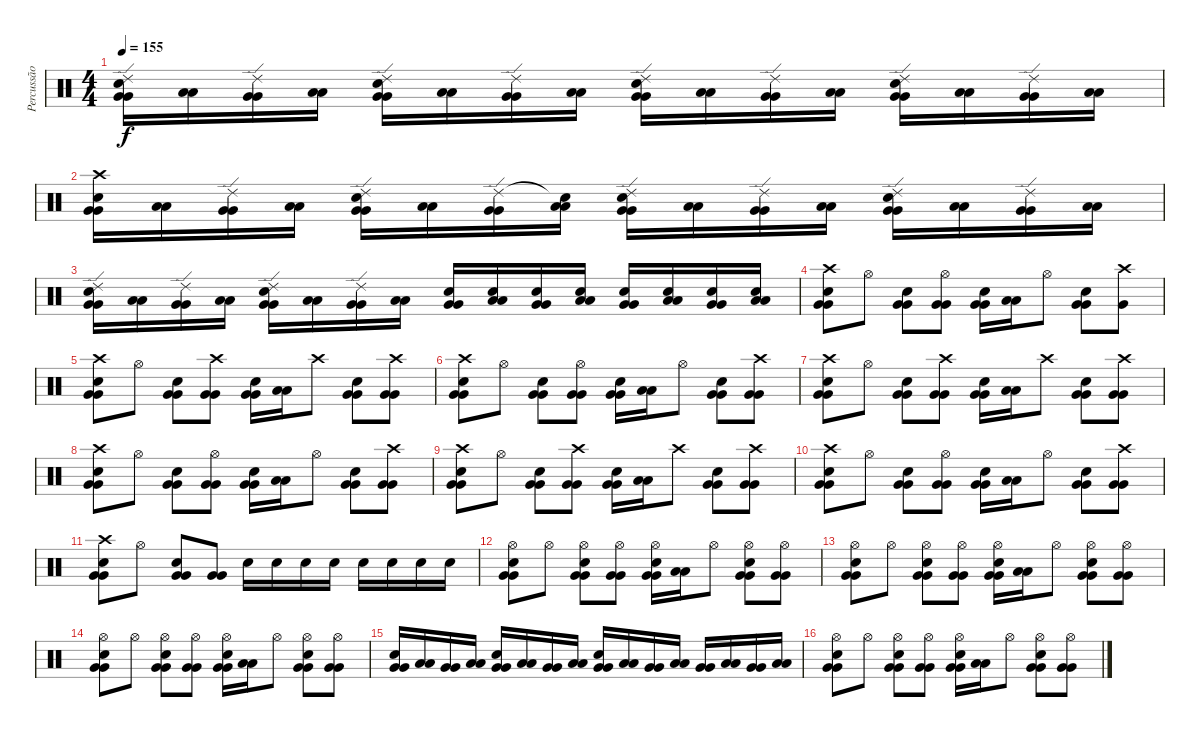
\track ("Percussão" "Percussão") {instrument percussion}
\staff {score}
\articulation defaults
\ts (4 4)
\tempo 155
\clef neutral
\ks c
("Ride (edge) 2" "Electric Snare (hit)" "Very Low Tom (hit)" "Very Low Tom (hit)").16{dy f} ("Low Floor Tom (hit)" "Low Floor Tom (hit)").16 ("Ride (edge) 2" "Very Low Tom (hit)" "Very Low Tom (hit)").16 ("Low Floor Tom (hit)" "Low Floor Tom (hit)").16 ("Ride (edge) 2" "Electric Snare (hit)" "Very Low Tom (hit)" "Very Low Tom (hit)").16 ("Low Floor Tom (hit)" "Low Floor Tom (hit)").16 ("Ride (edge) 2" "Very Low Tom (hit)" "Very Low Tom (hit)").16 ("Low Floor Tom (hit)" "Low Floor Tom (hit)").16 ("Ride (edge) 2" "Electric Snare (hit)" "Very Low Tom (hit)" "Very Low Tom (hit)").16 ("Low Floor Tom (hit)" "Low Floor Tom (hit)").16 ("Ride (edge) 2" "Very Low Tom (hit)" "Very Low Tom (hit)").16 ("Low Floor Tom (hit)" "Low Floor Tom (hit)").16 ("Ride (edge) 2" "Electric Snare (hit)" "Very Low Tom (hit)" "Very Low Tom (hit)").16 ("Low Floor Tom (hit)" "Low Floor Tom (hit)").16 ("Ride (edge) 2" "Very Low Tom (hit)" "Very Low Tom (hit)").16 ("Low Floor Tom (hit)" "Low Floor Tom (hit)").16 |
("Crash high (hit)" "Electric Snare (hit)" "Very Low Tom (hit)" "Very Low Tom (hit)").16 ("Low Floor Tom (hit)" "Low Floor Tom (hit)").16 ("Ride (edge) 2" "Very Low Tom (hit)" "Very Low Tom (hit)").16 ("Low Floor Tom (hit)" "Low Floor Tom (hit)").16 ("Ride (edge) 2" "Electric Snare (hit)" "Very Low Tom (hit)" "Very Low Tom (hit)").16 ("Low Floor Tom (hit)" "Low Floor Tom (hit)").16 ("Ride (edge) 2" "Very Low Tom (hit)" "Very Low Tom (hit)").16 ("Snare (hit)"{t} "Low Floor Tom (hit)" "Low Floor Tom (hit)").16 ("Ride (edge) 2" "Electric Snare (hit)" "Very Low Tom (hit)" "Very Low Tom (hit)").16 ("Low Floor Tom (hit)" "Low Floor Tom (hit)").16 ("Ride (edge) 2" "Very Low Tom (hit)" "Very Low Tom (hit)").16 ("Low Floor Tom (hit)" "Low Floor Tom (hit)").16 ("Ride (edge) 2" "Electric Snare (hit)" "Very Low Tom (hit)" "Very Low Tom (hit)").16 ("Low Floor Tom (hit)" "Low Floor Tom (hit)").16 ("Ride (edge) 2" "Very Low Tom (hit)" "Very Low Tom (hit)").16 ("Low Floor Tom (hit)" "Low Floor Tom (hit)").16 |
("Ride (edge) 2" "Electric Snare (hit)" "Very Low Tom (hit)" "Very Low Tom (hit)").16 ("Low Floor Tom (hit)" "Low Floor Tom (hit)").16 ("Ride (edge) 2" "Very Low Tom (hit)" "Very Low Tom (hit)").16 ("Low Floor Tom (hit)" "Low Floor Tom (hit)").16 ("Ride (edge) 2" "Electric Snare (hit)" "Very Low Tom (hit)" "Very Low Tom (hit)").16 ("Low Floor Tom (hit)" "Low Floor Tom (hit)").16 ("Ride (edge) 2" "Very Low Tom (hit)" "Very Low Tom (hit)").16 ("Low Floor Tom (hit)" "Low Floor Tom (hit)").16 ("Electric Snare (hit)" "Very Low Tom (hit)" "Very Low Tom (hit)").16 ("Electric Snare (hit)" "Low Floor Tom (hit)" "Low Floor Tom (hit)").16 ("Electric Snare (hit)" "Very Low Tom (hit)" "Very Low Tom (hit)").16 ("Electric Snare (hit)" "Low Floor Tom (hit)" "Low Floor Tom (hit)").16 ("Electric Snare (hit)" "Very Low Tom (hit)" "Very Low Tom (hit)").16 ("Electric Snare (hit)" "Low Floor Tom (hit)" "Low Floor Tom (hit)").16 ("Electric Snare (hit)" "Very Low Tom (hit)" "Very Low Tom (hit)").16 ("Electric Snare (hit)" "Low Floor Tom (hit)" "Low Floor Tom (hit)").16 |
("Crash high (hit)" "Electric Snare (hit)" "Very Low Tom (hit)" "Very Low Tom (hit)").8 "Hi-Hat (open)".8 ("Electric Snare (hit)" "Very Low Tom (hit)" "Very Low Tom (hit)").8 ("Hi-Hat (open)" "Very Low Tom (hit)" "Very Low Tom (hit)").8 ("Electric Snare (hit)" "Very Low Tom (hit)" "Very Low Tom (hit)").16 ("Low Floor Tom (hit)" "Low Floor Tom (hit)").16 "Hi-Hat (open)".8 ("Electric Snare (hit)" "Very Low Tom (hit)" "Very Low Tom (hit)").8 ("Crash high (hit)" "Very Low Tom (hit)").8 |
("Crash high (hit)" "Electric Snare (hit)" "Very Low Tom (hit)" "Very Low Tom (hit)").8 "Hi-Hat (open)".8 ("Electric Snare (hit)" "Very Low Tom (hit)" "Very Low Tom (hit)").8 ("Crash high (hit)" "Very Low Tom (hit)" "Very Low Tom (hit)").8 ("Electric Snare (hit)" "Very Low Tom (hit)" "Very Low Tom (hit)").16 ("Low Floor Tom (hit)" "Low Floor Tom (hit)").16 "Crash high (hit)".8 ("Electric Snare (hit)" "Very Low Tom (hit)" "Very Low Tom (hit)").8 ("Crash high (hit)" "Very Low Tom (hit)" "Very Low Tom (hit)").8 |
("Crash high (hit)" "Electric Snare (hit)" "Very Low Tom (hit)" "Very Low Tom (hit)").8 "Hi-Hat (open)".8 ("Electric Snare (hit)" "Very Low Tom (hit)" "Very Low Tom (hit)").8 ("Hi-Hat (open)" "Very Low Tom (hit)" "Very Low Tom (hit)").8 ("Electric Snare (hit)" "Very Low Tom (hit)" "Very Low Tom (hit)").16 ("Low Floor Tom (hit)" "Low Floor Tom (hit)").16 "Hi-Hat (open)".8 ("Electric Snare (hit)" "Very Low Tom (hit)" "Very Low Tom (hit)").8 ("Crash high (hit)" "Very Low Tom (hit)" "Very Low Tom (hit)").8 |
("Crash high (hit)" "Electric Snare (hit)" "Very Low Tom (hit)" "Very Low Tom (hit)").8 "Hi-Hat (open)".8 ("Electric Snare (hit)" "Very Low Tom (hit)" "Very Low Tom (hit)").8 ("Crash high (hit)" "Very Low Tom (hit)" "Very Low Tom (hit)").8 ("Electric Snare (hit)" "Very Low Tom (hit)" "Very Low Tom (hit)").16 ("Low Floor Tom (hit)" "Low Floor Tom (hit)").16 "Crash high (hit)".8 ("Electric Snare (hit)" "Very Low Tom (hit)" "Very Low Tom (hit)").8 ("Crash high (hit)" "Very Low Tom (hit)" "Very Low Tom (hit)").8 |
("Crash high (hit)" "Electric Snare (hit)" "Very Low Tom (hit)" "Very Low Tom (hit)").8 "Hi-Hat (open)".8 ("Electric Snare (hit)" "Very Low Tom (hit)" "Very Low Tom (hit)").8 ("Hi-Hat (open)" "Very Low Tom (hit)" "Very Low Tom (hit)").8 ("Electric Snare (hit)" "Very Low Tom (hit)" "Very Low Tom (hit)").16 ("Low Floor Tom (hit)" "Low Floor Tom (hit)").16 "Hi-Hat (open)".8 ("Electric Snare (hit)" "Very Low Tom (hit)" "Very Low Tom (hit)").8 ("Crash high (hit)" "Very Low Tom (hit)" "Very Low Tom (hit)").8 |
("Crash high (hit)" "Electric Snare (hit)" "Very Low Tom (hit)" "Very Low Tom (hit)").8 "Hi-Hat (open)".8 ("Electric Snare (hit)" "Very Low Tom (hit)" "Very Low Tom (hit)").8 ("Crash high (hit)" "Very Low Tom (hit)" "Very Low Tom (hit)").8 ("Electric Snare (hit)" "Very Low Tom (hit)" "Very Low Tom (hit)").16 ("Low Floor Tom (hit)" "Low Floor Tom (hit)").16 "Crash high (hit)".8 ("Electric Snare (hit)" "Very Low Tom (hit)" "Very Low Tom (hit)").8 ("Crash high (hit)" "Very Low Tom (hit)" "Very Low Tom (hit)").8 |
("Crash high (hit)" "Electric Snare (hit)" "Very Low Tom (hit)" "Very Low Tom (hit)").8 "Hi-Hat (open)".8 ("Electric Snare (hit)" "Very Low Tom (hit)" "Very Low Tom (hit)").8 ("Hi-Hat (open)" "Very Low Tom (hit)" "Very Low Tom (hit)").8 ("Electric Snare (hit)" "Very Low Tom (hit)" "Very Low Tom (hit)").16 ("Low Floor Tom (hit)" "Low Floor Tom (hit)").16 "Hi-Hat (open)".8 ("Electric Snare (hit)" "Very Low Tom (hit)" "Very Low Tom (hit)").8 ("Crash high (hit)" "Very Low Tom (hit)" "Very Low Tom (hit)").8 |
("Crash high (hit)" "Electric Snare (hit)" "Very Low Tom (hit)" "Very Low Tom (hit)").8 "Hi-Hat (open)".8 ("Electric Snare (hit)" "Very Low Tom (hit)" "Very Low Tom (hit)").8 ("Very Low Tom (hit)" "Very Low Tom (hit)").8 "Electric Snare (hit)".16 "Electric Snare (hit)".16 "Electric Snare (hit)".16 "Electric Snare (hit)".16 "Electric Snare (hit)".16 "Electric Snare (hit)".16 "Electric Snare (hit)".16 "Electric Snare (hit)".16 |
("Hi-Hat (open)" "Electric Snare (hit)" "Very Low Tom (hit)" "Very Low Tom (hit)").8 "Hi-Hat (open)".8 ("Hi-Hat (open)" "Electric Snare (hit)" "Very Low Tom (hit)" "Very Low Tom (hit)").8 ("Hi-Hat (open)" "Very Low Tom (hit)" "Very Low Tom (hit)").8 ("Hi-Hat (open)" "Electric Snare (hit)" "Very Low Tom (hit)" "Very Low Tom (hit)").16 ("Low Floor Tom (hit)" "Low Floor Tom (hit)").16 "Hi-Hat (open)".8 ("Hi-Hat (open)" "Electric Snare (hit)" "Very Low Tom (hit)" "Very Low Tom (hit)").8 ("Hi-Hat (open)" "Very Low Tom (hit)" "Very Low Tom (hit)").8 |
("Hi-Hat (open)" "Electric Snare (hit)" "Very Low Tom (hit)" "Very Low Tom (hit)").8 "Hi-Hat (open)".8 ("Hi-Hat (open)" "Electric Snare (hit)" "Very Low Tom (hit)" "Very Low Tom (hit)").8 ("Hi-Hat (open)" "Very Low Tom (hit)" "Very Low Tom (hit)").8 ("Hi-Hat (open)" "Electric Snare (hit)" "Very Low Tom (hit)" "Very Low Tom (hit)").16 ("Low Floor Tom (hit)" "Low Floor Tom (hit)").16 "Hi-Hat (open)".8 ("Hi-Hat (open)" "Electric Snare (hit)" "Very Low Tom (hit)" "Very Low Tom (hit)").8 ("Hi-Hat (open)" "Very Low Tom (hit)" "Very Low Tom (hit)").8 |
("Hi-Hat (open)" "Electric Snare (hit)" "Very Low Tom (hit)" "Very Low Tom (hit)").8 "Hi-Hat (open)".8 ("Hi-Hat (open)" "Electric Snare (hit)" "Very Low Tom (hit)" "Very Low Tom (hit)").8 ("Hi-Hat (open)" "Very Low Tom (hit)" "Very Low Tom (hit)").8 ("Hi-Hat (open)" "Electric Snare (hit)" "Very Low Tom (hit)" "Very Low Tom (hit)").16 ("Low Floor Tom (hit)" "Low Floor Tom (hit)").16 "Hi-Hat (open)".8 ("Hi-Hat (open)" "Electric Snare (hit)" "Very Low Tom (hit)" "Very Low Tom (hit)").8 ("Hi-Hat (open)" "Very Low Tom (hit)" "Very Low Tom (hit)").8 |
("Electric Snare (hit)" "Very Low Tom (hit)" "Very Low Tom (hit)").16 ("Low Floor Tom (hit)" "Low Floor Tom (hit)").16 ("Very Low Tom (hit)" "Very Low Tom (hit)").16 ("Low Floor Tom (hit)" "Low Floor Tom (hit)").16 ("Electric Snare (hit)" "Very Low Tom (hit)" "Very Low Tom (hit)").16 ("Low Floor Tom (hit)" "Low Floor Tom (hit)").16 ("Very Low Tom (hit)" "Very Low Tom (hit)").16 ("Low Floor Tom (hit)" "Low Floor Tom (hit)").16 ("Electric Snare (hit)" "Very Low Tom (hit)" "Very Low Tom (hit)").16 ("Low Floor Tom (hit)" "Low Floor Tom (hit)").16 ("Very Low Tom (hit)" "Very Low Tom (hit)").16 ("Low Floor Tom (hit)" "Low Floor Tom (hit)").16 ("Very Low Tom (hit)" "Very Low Tom (hit)").16 ("Low Floor Tom (hit)" "Low Floor Tom (hit)").16 ("Very Low Tom (hit)" "Very Low Tom (hit)").16 ("Low Floor Tom (hit)" "Low Floor Tom (hit)").16 |
("Hi-Hat (open)" "Electric Snare (hit)" "Very Low Tom (hit)" "Very Low Tom (hit)").8 "Hi-Hat (open)".8 ("Hi-Hat (open)" "Electric Snare (hit)" "Very Low Tom (hit)" "Very Low Tom (hit)").8 ("Hi-Hat (open)" "Very Low Tom (hit)" "Very Low Tom (hit)").8 ("Hi-Hat (open)" "Electric Snare (hit)" "Very Low Tom (hit)" "Very Low Tom (hit)").16 ("Low Floor Tom (hit)" "Low Floor Tom (hit)").16 "Hi-Hat (open)".8 ("Hi-Hat (open)" "Electric Snare (hit)" "Very Low Tom (hit)" "Very Low Tom (hit)").8 ("Hi-Hat (open)" "Very Low Tom (hit)" "Very Low Tom (hit)").8
